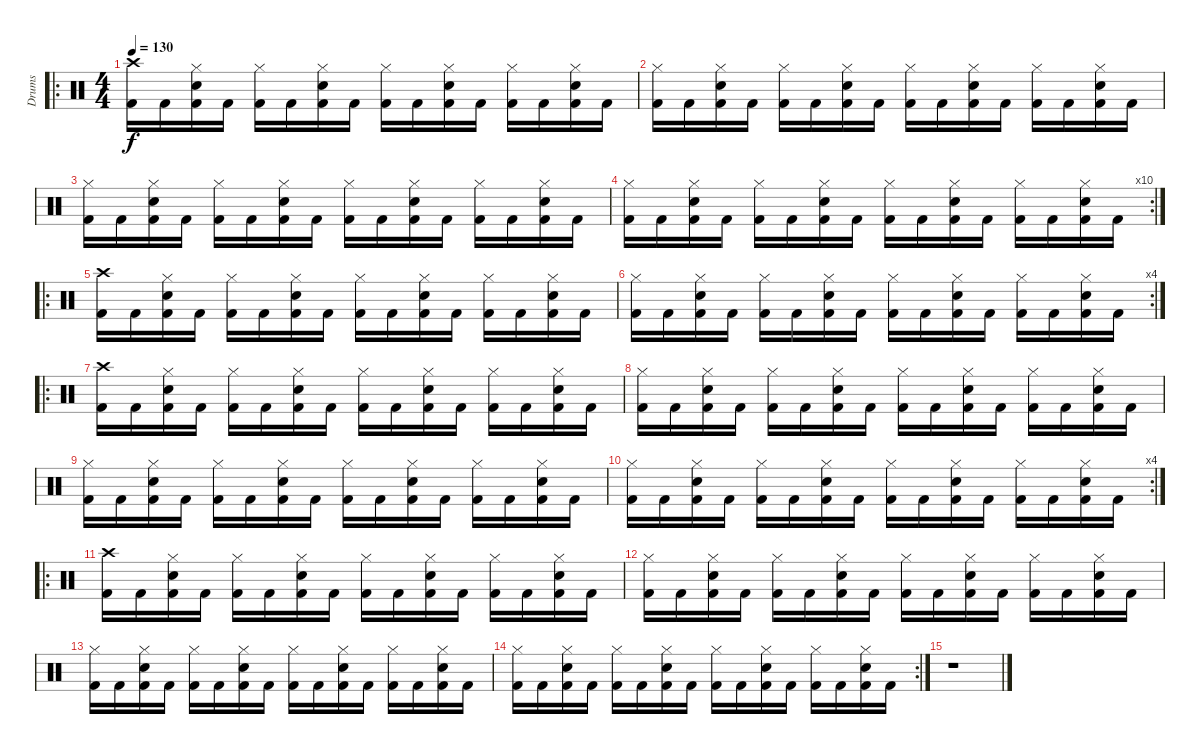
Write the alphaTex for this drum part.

\track ("Drums" "Drums") {instrument percussion}
\staff {score}
\articulation defaults
\ro
\ts (4 4)
\tempo 130
\clef neutral
\ks c
("Kick (hit) 2" "Crash high (hit)").16{dy f} "Kick (hit) 2".16 ("Kick (hit) 2" "Hi-Hat (closed)" "Snare (hit) 2").16 "Kick (hit) 2".16 ("Kick (hit) 2" "Hi-Hat (closed)").16 "Kick (hit) 2".16 ("Kick (hit) 2" "Hi-Hat (closed)" "Snare (hit) 2").16 "Kick (hit) 2".16 ("Kick (hit) 2" "Hi-Hat (closed)").16 "Kick (hit) 2".16 ("Kick (hit) 2" "Hi-Hat (closed)" "Snare (hit) 2").16 "Kick (hit) 2".16 ("Kick (hit) 2" "Hi-Hat (closed)").16 "Kick (hit) 2".16 ("Kick (hit) 2" "Hi-Hat (closed)" "Snare (hit) 2").16 "Kick (hit) 2".16 |
("Kick (hit) 2" "Hi-Hat (closed)").16 "Kick (hit) 2".16 ("Kick (hit) 2" "Hi-Hat (closed)" "Snare (hit) 2").16 "Kick (hit) 2".16 ("Kick (hit) 2" "Hi-Hat (closed)").16 "Kick (hit) 2".16 ("Kick (hit) 2" "Hi-Hat (closed)" "Snare (hit) 2").16 "Kick (hit) 2".16 ("Kick (hit) 2" "Hi-Hat (closed)").16 "Kick (hit) 2".16 ("Kick (hit) 2" "Hi-Hat (closed)" "Snare (hit) 2").16 "Kick (hit) 2".16 ("Kick (hit) 2" "Hi-Hat (closed)").16 "Kick (hit) 2".16 ("Kick (hit) 2" "Hi-Hat (closed)" "Snare (hit) 2").16 "Kick (hit) 2".16 |
("Kick (hit) 2" "Hi-Hat (closed)").16 "Kick (hit) 2".16 ("Kick (hit) 2" "Hi-Hat (closed)" "Snare (hit) 2").16 "Kick (hit) 2".16 ("Kick (hit) 2" "Hi-Hat (closed)").16 "Kick (hit) 2".16 ("Kick (hit) 2" "Hi-Hat (closed)" "Snare (hit) 2").16 "Kick (hit) 2".16 ("Kick (hit) 2" "Hi-Hat (closed)").16 "Kick (hit) 2".16 ("Kick (hit) 2" "Hi-Hat (closed)" "Snare (hit) 2").16 "Kick (hit) 2".16 ("Kick (hit) 2" "Hi-Hat (closed)").16 "Kick (hit) 2".16 ("Kick (hit) 2" "Hi-Hat (closed)" "Snare (hit) 2").16 "Kick (hit) 2".16 |
\rc 10
("Kick (hit) 2" "Hi-Hat (closed)").16 "Kick (hit) 2".16 ("Kick (hit) 2" "Hi-Hat (closed)" "Snare (hit) 2").16 "Kick (hit) 2".16 ("Kick (hit) 2" "Hi-Hat (closed)").16 "Kick (hit) 2".16 ("Kick (hit) 2" "Hi-Hat (closed)" "Snare (hit) 2").16 "Kick (hit) 2".16 ("Kick (hit) 2" "Hi-Hat (closed)").16 "Kick (hit) 2".16 ("Kick (hit) 2" "Hi-Hat (closed)" "Snare (hit) 2").16 "Kick (hit) 2".16 ("Kick (hit) 2" "Hi-Hat (closed)").16 "Kick (hit) 2".16 ("Kick (hit) 2" "Hi-Hat (closed)" "Snare (hit) 2").16 "Kick (hit) 2".16 |
\ro
("Kick (hit) 2" "Crash high (hit)").16 "Kick (hit) 2".16 ("Kick (hit) 2" "Hi-Hat (closed)" "Snare (hit) 2").16 "Kick (hit) 2".16 ("Kick (hit) 2" "Hi-Hat (closed)").16 "Kick (hit) 2".16 ("Kick (hit) 2" "Hi-Hat (closed)" "Snare (hit) 2").16 "Kick (hit) 2".16 ("Kick (hit) 2" "Hi-Hat (closed)").16 "Kick (hit) 2".16 ("Kick (hit) 2" "Hi-Hat (closed)" "Snare (hit) 2").16 "Kick (hit) 2".16 ("Kick (hit) 2" "Hi-Hat (closed)").16 "Kick (hit) 2".16 ("Kick (hit) 2" "Hi-Hat (closed)" "Snare (hit) 2").16 "Kick (hit) 2".16 |
\rc 4
("Kick (hit) 2" "Hi-Hat (closed)").16 "Kick (hit) 2".16 ("Kick (hit) 2" "Hi-Hat (closed)" "Snare (hit) 2").16 "Kick (hit) 2".16 ("Kick (hit) 2" "Hi-Hat (closed)").16 "Kick (hit) 2".16 ("Kick (hit) 2" "Hi-Hat (closed)" "Snare (hit) 2").16 "Kick (hit) 2".16 ("Kick (hit) 2" "Hi-Hat (closed)").16 "Kick (hit) 2".16 ("Kick (hit) 2" "Hi-Hat (closed)" "Snare (hit) 2").16 "Kick (hit) 2".16 ("Kick (hit) 2" "Hi-Hat (closed)").16 "Kick (hit) 2".16 ("Kick (hit) 2" "Hi-Hat (closed)" "Snare (hit) 2").16 "Kick (hit) 2".16 |
\ro
("Kick (hit) 2" "Crash high (hit)").16 "Kick (hit) 2".16 ("Kick (hit) 2" "Hi-Hat (closed)" "Snare (hit) 2").16 "Kick (hit) 2".16 ("Kick (hit) 2" "Hi-Hat (closed)").16 "Kick (hit) 2".16 ("Kick (hit) 2" "Hi-Hat (closed)" "Snare (hit) 2").16 "Kick (hit) 2".16 ("Kick (hit) 2" "Hi-Hat (closed)").16 "Kick (hit) 2".16 ("Kick (hit) 2" "Hi-Hat (closed)" "Snare (hit) 2").16 "Kick (hit) 2".16 ("Kick (hit) 2" "Hi-Hat (closed)").16 "Kick (hit) 2".16 ("Kick (hit) 2" "Hi-Hat (closed)" "Snare (hit) 2").16 "Kick (hit) 2".16 |
("Kick (hit) 2" "Hi-Hat (closed)").16 "Kick (hit) 2".16 ("Kick (hit) 2" "Hi-Hat (closed)" "Snare (hit) 2").16 "Kick (hit) 2".16 ("Kick (hit) 2" "Hi-Hat (closed)").16 "Kick (hit) 2".16 ("Kick (hit) 2" "Hi-Hat (closed)" "Snare (hit) 2").16 "Kick (hit) 2".16 ("Kick (hit) 2" "Hi-Hat (closed)").16 "Kick (hit) 2".16 ("Kick (hit) 2" "Hi-Hat (closed)" "Snare (hit) 2").16 "Kick (hit) 2".16 ("Kick (hit) 2" "Hi-Hat (closed)").16 "Kick (hit) 2".16 ("Kick (hit) 2" "Hi-Hat (closed)" "Snare (hit) 2").16 "Kick (hit) 2".16 |
("Kick (hit) 2" "Hi-Hat (closed)").16 "Kick (hit) 2".16 ("Kick (hit) 2" "Hi-Hat (closed)" "Snare (hit) 2").16 "Kick (hit) 2".16 ("Kick (hit) 2" "Hi-Hat (closed)").16 "Kick (hit) 2".16 ("Kick (hit) 2" "Hi-Hat (closed)" "Snare (hit) 2").16 "Kick (hit) 2".16 ("Kick (hit) 2" "Hi-Hat (closed)").16 "Kick (hit) 2".16 ("Kick (hit) 2" "Hi-Hat (closed)" "Snare (hit) 2").16 "Kick (hit) 2".16 ("Kick (hit) 2" "Hi-Hat (closed)").16 "Kick (hit) 2".16 ("Kick (hit) 2" "Hi-Hat (closed)" "Snare (hit) 2").16 "Kick (hit) 2".16 |
\rc 4
("Kick (hit) 2" "Hi-Hat (closed)").16 "Kick (hit) 2".16 ("Kick (hit) 2" "Hi-Hat (closed)" "Snare (hit) 2").16 "Kick (hit) 2".16 ("Kick (hit) 2" "Hi-Hat (closed)").16 "Kick (hit) 2".16 ("Kick (hit) 2" "Hi-Hat (closed)" "Snare (hit) 2").16 "Kick (hit) 2".16 ("Kick (hit) 2" "Hi-Hat (closed)").16 "Kick (hit) 2".16 ("Kick (hit) 2" "Hi-Hat (closed)" "Snare (hit) 2").16 "Kick (hit) 2".16 ("Kick (hit) 2" "Hi-Hat (closed)").16 "Kick (hit) 2".16 ("Kick (hit) 2" "Hi-Hat (closed)" "Snare (hit) 2").16 "Kick (hit) 2".16 |
\ro
("Kick (hit) 2" "Crash high (hit)").16 "Kick (hit) 2".16 ("Kick (hit) 2" "Hi-Hat (closed)" "Snare (hit) 2").16 "Kick (hit) 2".16 ("Kick (hit) 2" "Hi-Hat (closed)").16 "Kick (hit) 2".16 ("Kick (hit) 2" "Hi-Hat (closed)" "Snare (hit) 2").16 "Kick (hit) 2".16 ("Kick (hit) 2" "Hi-Hat (closed)").16 "Kick (hit) 2".16 ("Kick (hit) 2" "Hi-Hat (closed)" "Snare (hit) 2").16 "Kick (hit) 2".16 ("Kick (hit) 2" "Hi-Hat (closed)").16 "Kick (hit) 2".16 ("Kick (hit) 2" "Hi-Hat (closed)" "Snare (hit) 2").16 "Kick (hit) 2".16 |
("Kick (hit) 2" "Hi-Hat (closed)").16 "Kick (hit) 2".16 ("Kick (hit) 2" "Hi-Hat (closed)" "Snare (hit) 2").16 "Kick (hit) 2".16 ("Kick (hit) 2" "Hi-Hat (closed)").16 "Kick (hit) 2".16 ("Kick (hit) 2" "Hi-Hat (closed)" "Snare (hit) 2").16 "Kick (hit) 2".16 ("Kick (hit) 2" "Hi-Hat (closed)").16 "Kick (hit) 2".16 ("Kick (hit) 2" "Hi-Hat (closed)" "Snare (hit) 2").16 "Kick (hit) 2".16 ("Kick (hit) 2" "Hi-Hat (closed)").16 "Kick (hit) 2".16 ("Kick (hit) 2" "Hi-Hat (closed)" "Snare (hit) 2").16 "Kick (hit) 2".16 |
("Kick (hit) 2" "Hi-Hat (closed)").16 "Kick (hit) 2".16 ("Kick (hit) 2" "Hi-Hat (closed)" "Snare (hit) 2").16 "Kick (hit) 2".16 ("Kick (hit) 2" "Hi-Hat (closed)").16 "Kick (hit) 2".16 ("Kick (hit) 2" "Hi-Hat (closed)" "Snare (hit) 2").16 "Kick (hit) 2".16 ("Kick (hit) 2" "Hi-Hat (closed)").16 "Kick (hit) 2".16 ("Kick (hit) 2" "Hi-Hat (closed)" "Snare (hit) 2").16 "Kick (hit) 2".16 ("Kick (hit) 2" "Hi-Hat (closed)").16 "Kick (hit) 2".16 ("Kick (hit) 2" "Hi-Hat (closed)" "Snare (hit) 2").16 "Kick (hit) 2".16 |
\rc 2
("Kick (hit) 2" "Hi-Hat (closed)").16 "Kick (hit) 2".16 ("Kick (hit) 2" "Hi-Hat (closed)" "Snare (hit) 2").16 "Kick (hit) 2".16 ("Kick (hit) 2" "Hi-Hat (closed)").16 "Kick (hit) 2".16 ("Kick (hit) 2" "Hi-Hat (closed)" "Snare (hit) 2").16 "Kick (hit) 2".16 ("Kick (hit) 2" "Hi-Hat (closed)").16 "Kick (hit) 2".16 ("Kick (hit) 2" "Hi-Hat (closed)" "Snare (hit) 2").16 "Kick (hit) 2".16 ("Kick (hit) 2" "Hi-Hat (closed)").16 "Kick (hit) 2".16 ("Kick (hit) 2" "Hi-Hat (closed)" "Snare (hit) 2").16 "Kick (hit) 2".16 |
r.1
